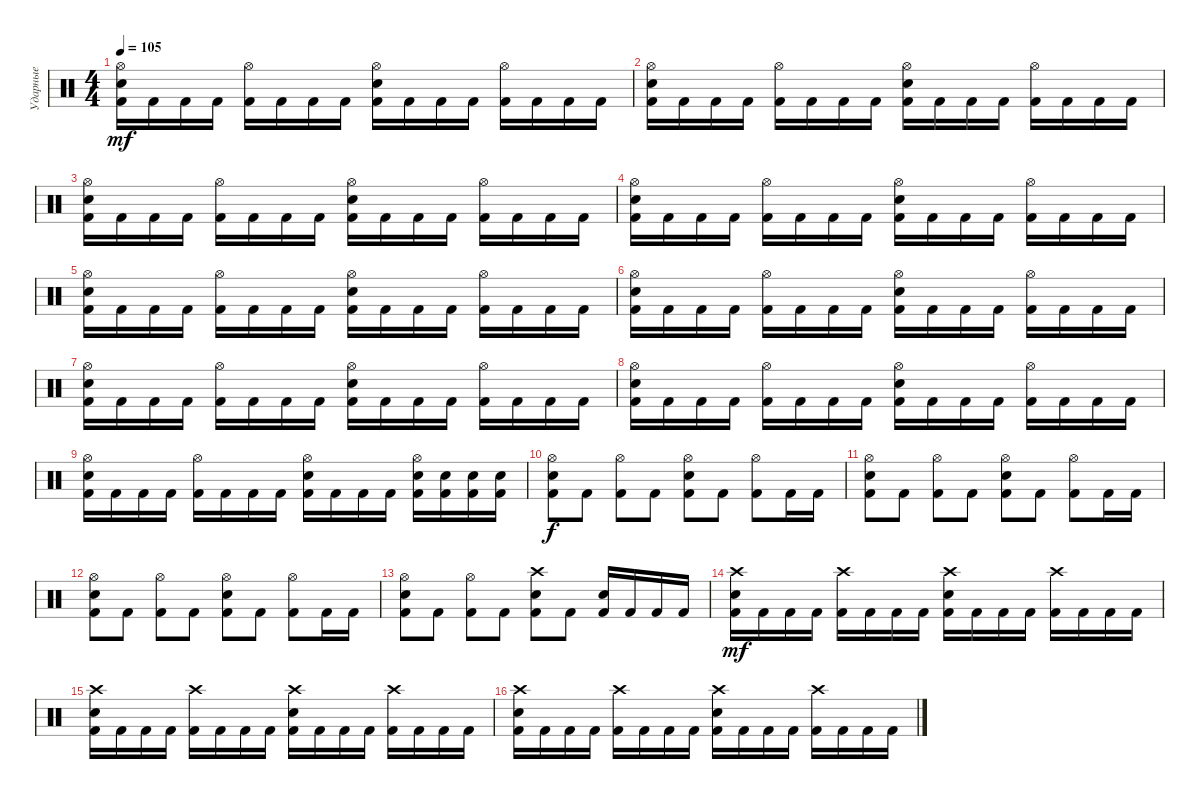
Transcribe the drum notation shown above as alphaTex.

\track ("Ударные" "Ударные") {instrument percussion}
\staff {score}
\articulation defaults
\ts (4 4)
\tempo 105
\clef neutral
\ks c
("Hi-Hat (open)" "Electric Snare (hit)" "Kick (hit) 2").16{dy mf} "Kick (hit) 2".16 "Kick (hit) 2".16 "Kick (hit) 2".16 ("Hi-Hat (open)" "Kick (hit) 2").16 "Kick (hit) 2".16 "Kick (hit) 2".16 "Kick (hit) 2".16 ("Hi-Hat (open)" "Electric Snare (hit)" "Kick (hit) 2").16 "Kick (hit) 2".16 "Kick (hit) 2".16 "Kick (hit) 2".16 ("Hi-Hat (open)" "Kick (hit) 2").16 "Kick (hit) 2".16 "Kick (hit) 2".16 "Kick (hit) 2".16 |
("Hi-Hat (open)" "Electric Snare (hit)" "Kick (hit) 2").16 "Kick (hit) 2".16 "Kick (hit) 2".16 "Kick (hit) 2".16 ("Hi-Hat (open)" "Kick (hit) 2").16 "Kick (hit) 2".16 "Kick (hit) 2".16 "Kick (hit) 2".16 ("Hi-Hat (open)" "Electric Snare (hit)" "Kick (hit) 2").16 "Kick (hit) 2".16 "Kick (hit) 2".16 "Kick (hit) 2".16 ("Hi-Hat (open)" "Kick (hit) 2").16 "Kick (hit) 2".16 "Kick (hit) 2".16 "Kick (hit) 2".16 |
("Hi-Hat (open)" "Electric Snare (hit)" "Kick (hit) 2").16 "Kick (hit) 2".16 "Kick (hit) 2".16 "Kick (hit) 2".16 ("Hi-Hat (open)" "Kick (hit) 2").16 "Kick (hit) 2".16 "Kick (hit) 2".16 "Kick (hit) 2".16 ("Hi-Hat (open)" "Electric Snare (hit)" "Kick (hit) 2").16 "Kick (hit) 2".16 "Kick (hit) 2".16 "Kick (hit) 2".16 ("Hi-Hat (open)" "Kick (hit) 2").16 "Kick (hit) 2".16 "Kick (hit) 2".16 "Kick (hit) 2".16 |
("Hi-Hat (open)" "Electric Snare (hit)" "Kick (hit) 2").16 "Kick (hit) 2".16 "Kick (hit) 2".16 "Kick (hit) 2".16 ("Hi-Hat (open)" "Kick (hit) 2").16 "Kick (hit) 2".16 "Kick (hit) 2".16 "Kick (hit) 2".16 ("Hi-Hat (open)" "Electric Snare (hit)" "Kick (hit) 2").16 "Kick (hit) 2".16 "Kick (hit) 2".16 "Kick (hit) 2".16 ("Hi-Hat (open)" "Kick (hit) 2").16 "Kick (hit) 2".16 "Kick (hit) 2".16 "Kick (hit) 2".16 |
("Hi-Hat (open)" "Electric Snare (hit)" "Kick (hit) 2").16 "Kick (hit) 2".16 "Kick (hit) 2".16 "Kick (hit) 2".16 ("Hi-Hat (open)" "Kick (hit) 2").16 "Kick (hit) 2".16 "Kick (hit) 2".16 "Kick (hit) 2".16 ("Hi-Hat (open)" "Electric Snare (hit)" "Kick (hit) 2").16 "Kick (hit) 2".16 "Kick (hit) 2".16 "Kick (hit) 2".16 ("Hi-Hat (open)" "Kick (hit) 2").16 "Kick (hit) 2".16 "Kick (hit) 2".16 "Kick (hit) 2".16 |
("Hi-Hat (open)" "Electric Snare (hit)" "Kick (hit) 2").16 "Kick (hit) 2".16 "Kick (hit) 2".16 "Kick (hit) 2".16 ("Hi-Hat (open)" "Kick (hit) 2").16 "Kick (hit) 2".16 "Kick (hit) 2".16 "Kick (hit) 2".16 ("Hi-Hat (open)" "Electric Snare (hit)" "Kick (hit) 2").16 "Kick (hit) 2".16 "Kick (hit) 2".16 "Kick (hit) 2".16 ("Hi-Hat (open)" "Kick (hit) 2").16 "Kick (hit) 2".16 "Kick (hit) 2".16 "Kick (hit) 2".16 |
("Hi-Hat (open)" "Electric Snare (hit)" "Kick (hit) 2").16 "Kick (hit) 2".16 "Kick (hit) 2".16 "Kick (hit) 2".16 ("Hi-Hat (open)" "Kick (hit) 2").16 "Kick (hit) 2".16 "Kick (hit) 2".16 "Kick (hit) 2".16 ("Hi-Hat (open)" "Electric Snare (hit)" "Kick (hit) 2").16 "Kick (hit) 2".16 "Kick (hit) 2".16 "Kick (hit) 2".16 ("Hi-Hat (open)" "Kick (hit) 2").16 "Kick (hit) 2".16 "Kick (hit) 2".16 "Kick (hit) 2".16 |
("Hi-Hat (open)" "Electric Snare (hit)" "Kick (hit) 2").16 "Kick (hit) 2".16 "Kick (hit) 2".16 "Kick (hit) 2".16 ("Hi-Hat (open)" "Kick (hit) 2").16 "Kick (hit) 2".16 "Kick (hit) 2".16 "Kick (hit) 2".16 ("Hi-Hat (open)" "Electric Snare (hit)" "Kick (hit) 2").16 "Kick (hit) 2".16 "Kick (hit) 2".16 "Kick (hit) 2".16 ("Hi-Hat (open)" "Kick (hit) 2").16 "Kick (hit) 2".16 "Kick (hit) 2".16 "Kick (hit) 2".16 |
("Hi-Hat (open)" "Electric Snare (hit)" "Kick (hit) 2").16 "Kick (hit) 2".16 "Kick (hit) 2".16 "Kick (hit) 2".16 ("Hi-Hat (open)" "Kick (hit) 2").16 "Kick (hit) 2".16 "Kick (hit) 2".16 "Kick (hit) 2".16 ("Hi-Hat (open)" "Electric Snare (hit)" "Kick (hit) 2").16 "Kick (hit) 2".16 "Kick (hit) 2".16 "Kick (hit) 2".16 ("Hi-Hat (open)" "Electric Snare (hit)" "Kick (hit) 2").16 ("Electric Snare (hit)" "Kick (hit) 2").16 ("Electric Snare (hit)" "Kick (hit) 2").16 ("Electric Snare (hit)" "Kick (hit) 2").16 |
("Hi-Hat (open)" "Electric Snare (hit)" "Kick (hit) 2").8{dy f} "Kick (hit) 2".8 ("Hi-Hat (open)" "Kick (hit) 2").8 "Kick (hit) 2".8 ("Hi-Hat (open)" "Electric Snare (hit)" "Kick (hit) 2").8 "Kick (hit) 2".8 ("Hi-Hat (open)" "Kick (hit) 2").8 "Kick (hit) 2".16 "Kick (hit) 2".16 |
("Hi-Hat (open)" "Electric Snare (hit)" "Kick (hit) 2").8 "Kick (hit) 2".8 ("Hi-Hat (open)" "Kick (hit) 2").8 "Kick (hit) 2".8 ("Hi-Hat (open)" "Electric Snare (hit)" "Kick (hit) 2").8 "Kick (hit) 2".8 ("Hi-Hat (open)" "Kick (hit) 2").8 "Kick (hit) 2".16 "Kick (hit) 2".16 |
("Hi-Hat (open)" "Electric Snare (hit)" "Kick (hit) 2").8 "Kick (hit) 2".8 ("Hi-Hat (open)" "Kick (hit) 2").8 "Kick (hit) 2".8 ("Hi-Hat (open)" "Electric Snare (hit)" "Kick (hit) 2").8 "Kick (hit) 2".8 ("Hi-Hat (open)" "Kick (hit) 2").8 "Kick (hit) 2".16 "Kick (hit) 2".16 |
("Hi-Hat (open)" "Electric Snare (hit)" "Kick (hit) 2").8 "Kick (hit) 2".8 ("Hi-Hat (open)" "Kick (hit) 2").8 "Kick (hit) 2".8 ("Crash high (hit)" "Electric Snare (hit)" "Kick (hit) 2").8 "Kick (hit) 2".8 ("Electric Snare (hit)" "Kick (hit) 2").16 "Kick (hit) 2".16 "Kick (hit) 2".16 "Kick (hit) 2".16 |
("Crash high (hit)" "Electric Snare (hit)" "Kick (hit) 2").16{dy mf} "Kick (hit) 2".16 "Kick (hit) 2".16 "Kick (hit) 2".16 ("Crash high (hit)" "Kick (hit) 2").16 "Kick (hit) 2".16 "Kick (hit) 2".16 "Kick (hit) 2".16 ("Crash high (hit)" "Electric Snare (hit)" "Kick (hit) 2").16 "Kick (hit) 2".16 "Kick (hit) 2".16 "Kick (hit) 2".16 ("Crash high (hit)" "Kick (hit) 2").16 "Kick (hit) 2".16 "Kick (hit) 2".16 "Kick (hit) 2".16 |
("Crash high (hit)" "Electric Snare (hit)" "Kick (hit) 2").16 "Kick (hit) 2".16 "Kick (hit) 2".16 "Kick (hit) 2".16 ("Crash high (hit)" "Kick (hit) 2").16 "Kick (hit) 2".16 "Kick (hit) 2".16 "Kick (hit) 2".16 ("Crash high (hit)" "Electric Snare (hit)" "Kick (hit) 2").16 "Kick (hit) 2".16 "Kick (hit) 2".16 "Kick (hit) 2".16 ("Crash high (hit)" "Kick (hit) 2").16 "Kick (hit) 2".16 "Kick (hit) 2".16 "Kick (hit) 2".16 |
("Crash high (hit)" "Electric Snare (hit)" "Kick (hit) 2").16 "Kick (hit) 2".16 "Kick (hit) 2".16 "Kick (hit) 2".16 ("Crash high (hit)" "Kick (hit) 2").16 "Kick (hit) 2".16 "Kick (hit) 2".16 "Kick (hit) 2".16 ("Crash high (hit)" "Electric Snare (hit)" "Kick (hit) 2").16 "Kick (hit) 2".16 "Kick (hit) 2".16 "Kick (hit) 2".16 ("Crash high (hit)" "Kick (hit) 2").16 "Kick (hit) 2".16 "Kick (hit) 2".16 "Kick (hit) 2".16
